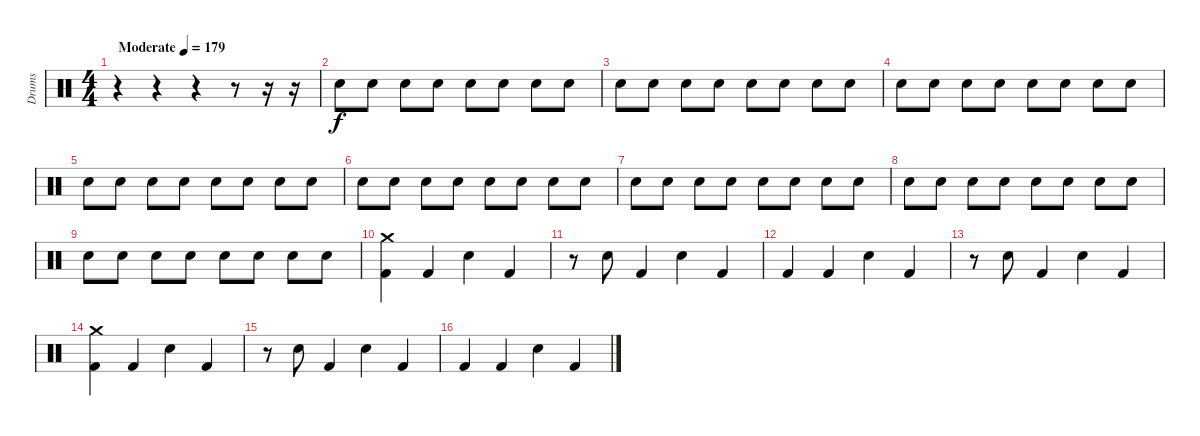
\track ("Drums" "Drums") {instrument percussion}
\staff {score}
\articulation defaults
\ts (4 4)
\tempo (179 "Moderate")
\clef neutral
\ks c
r.4{dy f} r.4 r.4 r.8 r.16 r.16{volume 0} |
"Snare (hit) 2".8{volume 8} "Snare (hit) 2".8 "Snare (hit) 2".8 "Snare (hit) 2".8 "Snare (hit) 2".8 "Snare (hit) 2".8 "Snare (hit) 2".8 "Snare (hit) 2".8 |
"Snare (hit) 2".8 "Snare (hit) 2".8 "Snare (hit) 2".8 "Snare (hit) 2".8 "Snare (hit) 2".8 "Snare (hit) 2".8 "Snare (hit) 2".8 "Snare (hit) 2".8 |
"Snare (hit) 2".8 "Snare (hit) 2".8 "Snare (hit) 2".8 "Snare (hit) 2".8 "Snare (hit) 2".8 "Snare (hit) 2".8 "Snare (hit) 2".8 "Snare (hit) 2".8 |
"Snare (hit) 2".8 "Snare (hit) 2".8 "Snare (hit) 2".8 "Snare (hit) 2".8 "Snare (hit) 2".8 "Snare (hit) 2".8 "Snare (hit) 2".8 "Snare (hit) 2".8 |
"Snare (hit) 2".8 "Snare (hit) 2".8 "Snare (hit) 2".8 "Snare (hit) 2".8 "Snare (hit) 2".8 "Snare (hit) 2".8 "Snare (hit) 2".8 "Snare (hit) 2".8 |
"Snare (hit) 2".8 "Snare (hit) 2".8 "Snare (hit) 2".8 "Snare (hit) 2".8 "Snare (hit) 2".8 "Snare (hit) 2".8 "Snare (hit) 2".8 "Snare (hit) 2".8 |
"Snare (hit) 2".8 "Snare (hit) 2".8 "Snare (hit) 2".8 "Snare (hit) 2".8 "Snare (hit) 2".8 "Snare (hit) 2".8 "Snare (hit) 2".8 "Snare (hit) 2".8 |
"Snare (hit) 2".8 "Snare (hit) 2".8 "Snare (hit) 2".8 "Snare (hit) 2".8 "Snare (hit) 2".8 "Snare (hit) 2".8 "Snare (hit) 2".8 "Snare (hit) 2".8 |
("Crash medium (hit)" "Kick (hit) 2").4 "Kick (hit) 2".4 "Snare (hit) 2".4 "Kick (hit) 2".4 |
r.8 "Snare (hit) 2".8 "Kick (hit) 2".4 "Snare (hit) 2".4 "Kick (hit) 2".4 |
"Kick (hit) 2".4 "Kick (hit) 2".4 "Snare (hit) 2".4 "Kick (hit) 2".4 |
r.8 "Snare (hit) 2".8 "Kick (hit) 2".4 "Snare (hit) 2".4 "Kick (hit) 2".4 |
("Crash medium (hit)" "Kick (hit) 2").4 "Kick (hit) 2".4 "Snare (hit) 2".4 "Kick (hit) 2".4 |
r.8 "Snare (hit) 2".8 "Kick (hit) 2".4 "Snare (hit) 2".4 "Kick (hit) 2".4 |
"Kick (hit) 2".4 "Kick (hit) 2".4 "Snare (hit) 2".4 "Kick (hit) 2".4
